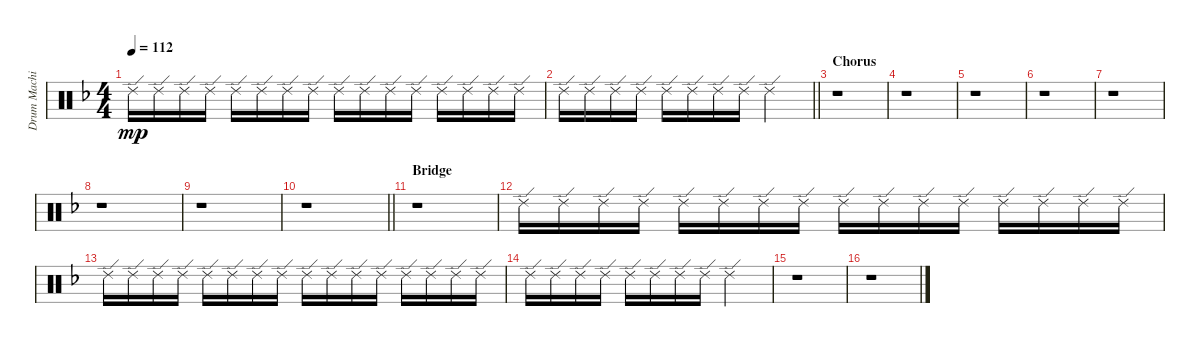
\track ("Drum Machine" "Drum Machi") {instrument percussion}
\staff {score}
\articulation defaults
\ts (4 4)
\tempo 112
\clef neutral
\ks f "Ride (edge) 2".16{dy mp} "Ride (edge) 2".16 "Ride (edge) 2".16 "Ride (edge) 2".16 "Ride (edge) 2".16 "Ride (edge) 2".16 "Ride (edge) 2".16 "Ride (edge) 2".16 "Ride (edge) 2".16 "Ride (edge) 2".16 "Ride (edge) 2".16 "Ride (edge) 2".16 "Ride (edge) 2".16 "Ride (edge) 2".16 "Ride (edge) 2".16 "Ride (edge) 2".16
|
\barLineRight lightlight "Ride (edge) 2".16 "Ride (edge) 2".16 "Ride (edge) 2".16 "Ride (edge) 2".16 "Ride (edge) 2".16 "Ride (edge) 2".16 "Ride (edge) 2".16 "Ride (edge) 2".16 "Ride (edge) 2".2
|
\section ("" "Chorus")
r.1 |
r.1 |
r.1 |
r.1 |
r.1 |
r.1 |
r.1 |
\barLineRight lightlight
r.1 |
\section ("" "Bridge")
r.1 |
"Ride (edge) 2".16 "Ride (edge) 2".16 "Ride (edge) 2".16 "Ride (edge) 2".16 "Ride (edge) 2".16 "Ride (edge) 2".16 "Ride (edge) 2".16 "Ride (edge) 2".16 "Ride (edge) 2".16 "Ride (edge) 2".16 "Ride (edge) 2".16 "Ride (edge) 2".16 "Ride (edge) 2".16 "Ride (edge) 2".16 "Ride (edge) 2".16 "Ride (edge) 2".16 |
"Ride (edge) 2".16 "Ride (edge) 2".16 "Ride (edge) 2".16 "Ride (edge) 2".16 "Ride (edge) 2".16 "Ride (edge) 2".16 "Ride (edge) 2".16 "Ride (edge) 2".16 "Ride (edge) 2".16 "Ride (edge) 2".16 "Ride (edge) 2".16 "Ride (edge) 2".16 "Ride (edge) 2".16 "Ride (edge) 2".16 "Ride (edge) 2".16 "Ride (edge) 2".16 |
"Ride (edge) 2".16 "Ride (edge) 2".16 "Ride (edge) 2".16 "Ride (edge) 2".16 "Ride (edge) 2".16 "Ride (edge) 2".16 "Ride (edge) 2".16 "Ride (edge) 2".16 "Ride (edge) 2".2 |
r.1 |
r.1
